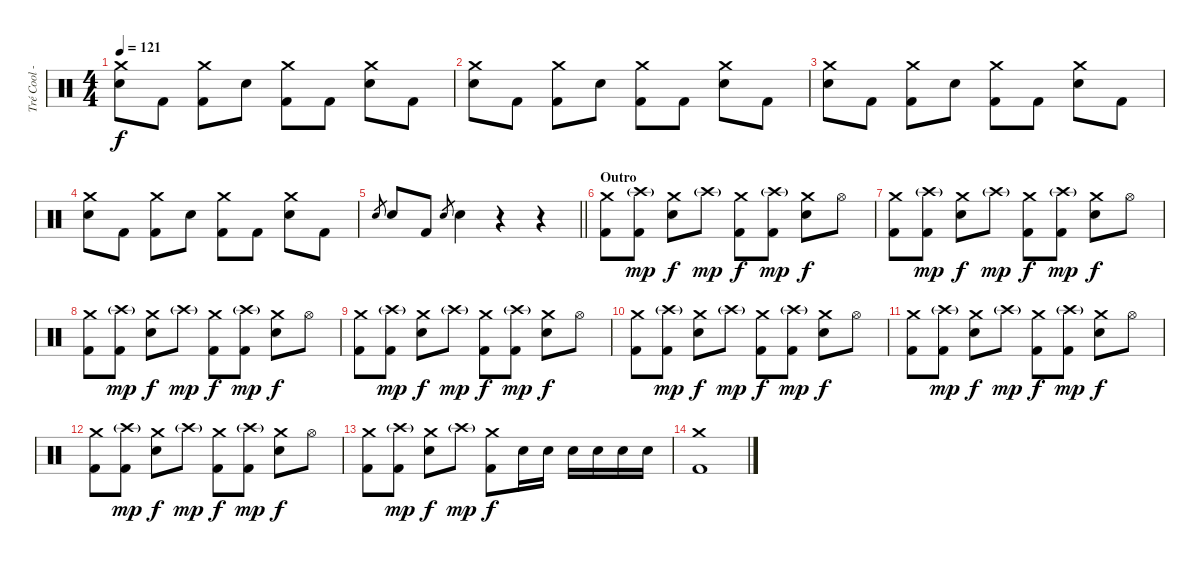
\track ("Tré Cool - Drums" "Tré Cool -") {instrument percussion}
\staff {score}
\articulation defaults
\ts (4 4)
\tempo 121
\clef neutral
\ks c
("Crash medium (hit)" "Electric Snare (hit)").8{dy f} "Kick (hit) 2".8 ("Crash medium (hit)" "Kick (hit) 2").8 "Electric Snare (hit)".8 ("Crash medium (hit)" "Kick (hit) 2").8 "Kick (hit) 2".8 ("Crash medium (hit)" "Electric Snare (hit)").8 "Kick (hit) 2".8 |
("Crash medium (hit)" "Electric Snare (hit)").8 "Kick (hit) 2".8 ("Crash medium (hit)" "Kick (hit) 2").8 "Electric Snare (hit)".8 ("Crash medium (hit)" "Kick (hit) 2").8 "Kick (hit) 2".8 ("Crash medium (hit)" "Electric Snare (hit)").8 "Kick (hit) 2".8 |
("Crash medium (hit)" "Electric Snare (hit)").8 "Kick (hit) 2".8 ("Crash medium (hit)" "Kick (hit) 2").8 "Electric Snare (hit)".8 ("Crash medium (hit)" "Kick (hit) 2").8 "Kick (hit) 2".8 ("Crash medium (hit)" "Electric Snare (hit)").8 "Kick (hit) 2".8 |
("Crash medium (hit)" "Electric Snare (hit)").8 "Kick (hit) 2".8 ("Crash medium (hit)" "Kick (hit) 2").8 "Electric Snare (hit)".8 ("Crash medium (hit)" "Kick (hit) 2").8 "Kick (hit) 2".8 ("Crash medium (hit)" "Electric Snare (hit)").8 "Kick (hit) 2".8 |
\barLineRight lightlight "Electric Snare (hit)".8{gr} "Electric Snare (hit)".8 "Kick (hit) 2".8 "Electric Snare (hit)".8{gr} "Electric Snare (hit)".4
r.4 r.4 |
\section ("" "Outro")
("Crash medium (hit)" "Kick (hit) 2").8 ("Crash high (hit)"{g} "Kick (hit) 2").8{dy mp} ("Crash medium (hit)" "Electric Snare (hit)").8{dy f} "Crash high (hit)"{g}.8{dy mp} ("Crash medium (hit)" "Kick (hit) 2").8{dy f} ("Crash high (hit)"{g} "Kick (hit) 2").8{dy mp} ("Crash medium (hit)" "Electric Snare (hit)").8{dy f} "Hi-Hat (open)".8 |
("Crash medium (hit)" "Kick (hit) 2").8 ("Crash high (hit)"{g} "Kick (hit) 2").8{dy mp} ("Crash medium (hit)" "Electric Snare (hit)").8{dy f} "Crash high (hit)"{g}.8{dy mp} ("Crash medium (hit)" "Kick (hit) 2").8{dy f} ("Crash high (hit)"{g} "Kick (hit) 2").8{dy mp} ("Crash medium (hit)" "Electric Snare (hit)").8{dy f} "Hi-Hat (open)".8 |
("Crash medium (hit)" "Kick (hit) 2").8 ("Crash high (hit)"{g} "Kick (hit) 2").8{dy mp} ("Crash medium (hit)" "Electric Snare (hit)").8{dy f} "Crash high (hit)"{g}.8{dy mp} ("Crash medium (hit)" "Kick (hit) 2").8{dy f} ("Crash high (hit)"{g} "Kick (hit) 2").8{dy mp} ("Crash medium (hit)" "Electric Snare (hit)").8{dy f} "Hi-Hat (open)".8 |
("Crash medium (hit)" "Kick (hit) 2").8 ("Crash high (hit)"{g} "Kick (hit) 2").8{dy mp} ("Crash medium (hit)" "Electric Snare (hit)").8{dy f} "Crash high (hit)"{g}.8{dy mp} ("Crash medium (hit)" "Kick (hit) 2").8{dy f} ("Crash high (hit)"{g} "Kick (hit) 2").8{dy mp} ("Crash medium (hit)" "Electric Snare (hit)").8{dy f} "Hi-Hat (open)".8 |
("Crash medium (hit)" "Kick (hit) 2").8 ("Crash high (hit)"{g} "Kick (hit) 2").8{dy mp} ("Crash medium (hit)" "Electric Snare (hit)").8{dy f} "Crash high (hit)"{g}.8{dy mp} ("Crash medium (hit)" "Kick (hit) 2").8{dy f} ("Crash high (hit)"{g} "Kick (hit) 2").8{dy mp} ("Crash medium (hit)" "Electric Snare (hit)").8{dy f} "Hi-Hat (open)".8 |
("Crash medium (hit)" "Kick (hit) 2").8 ("Crash high (hit)"{g} "Kick (hit) 2").8{dy mp} ("Crash medium (hit)" "Electric Snare (hit)").8{dy f} "Crash high (hit)"{g}.8{dy mp} ("Crash medium (hit)" "Kick (hit) 2").8{dy f} ("Crash high (hit)"{g} "Kick (hit) 2").8{dy mp} ("Crash medium (hit)" "Electric Snare (hit)").8{dy f} "Hi-Hat (open)".8 |
("Crash medium (hit)" "Kick (hit) 2").8 ("Crash high (hit)"{g} "Kick (hit) 2").8{dy mp} ("Crash medium (hit)" "Electric Snare (hit)").8{dy f} "Crash high (hit)"{g}.8{dy mp} ("Crash medium (hit)" "Kick (hit) 2").8{dy f} ("Crash high (hit)"{g} "Kick (hit) 2").8{dy mp} ("Crash medium (hit)" "Electric Snare (hit)").8{dy f} "Hi-Hat (open)".8 |
("Crash medium (hit)" "Kick (hit) 2").8 ("Crash high (hit)"{g} "Kick (hit) 2").8{dy mp} ("Crash medium (hit)" "Electric Snare (hit)").8{dy f} "Crash high (hit)"{g}.8{dy mp} ("Crash medium (hit)" "Kick (hit) 2").8{dy f} "Electric Snare (hit)".16 "Electric Snare (hit)".16 "Electric Snare (hit)".16 "Electric Snare (hit)".16 "Electric Snare (hit)".16 "Electric Snare (hit)".16 |
("Crash medium (hit)" "Kick (hit) 2").1
